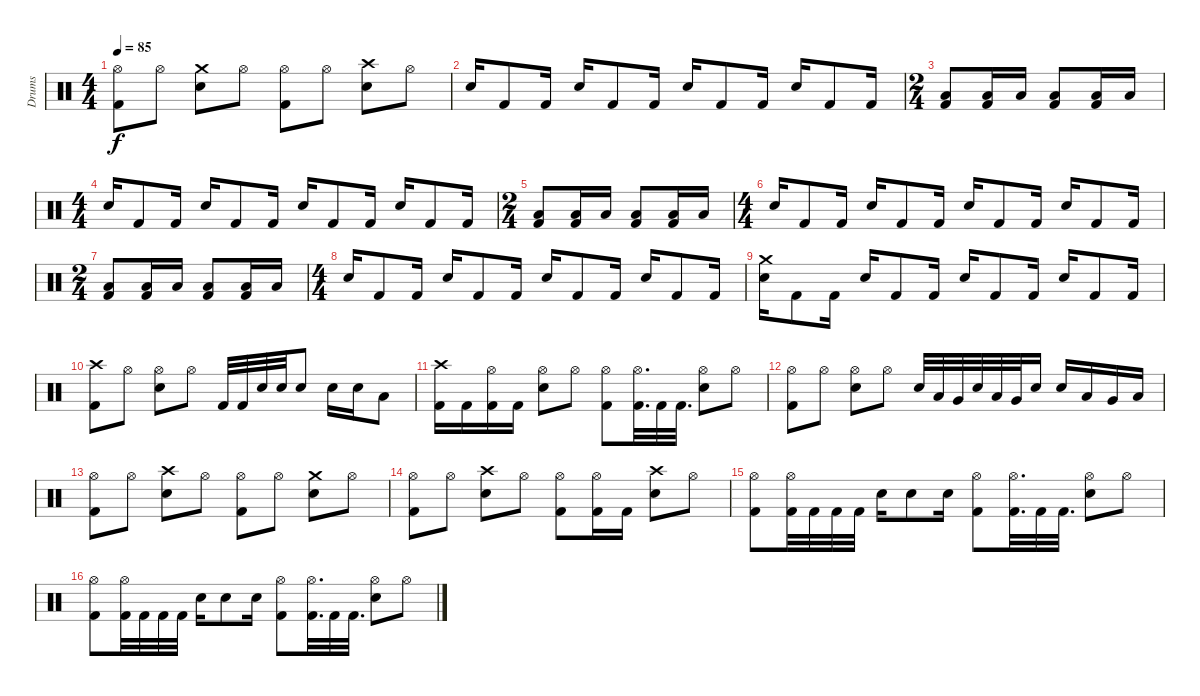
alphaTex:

\track ("Drums" "Drums") {instrument percussion}
\staff {score}
\articulation defaults
\ts (4 4)
\tempo 85
\clef neutral
\ks c
("Hi-Hat (open)" "Kick (hit) 2").8{dy f} "Hi-Hat (open)".8 ("Snare (hit) 2" "Crash medium (hit)").8 "Hi-Hat (open)".8 ("Kick (hit) 2" "Hi-Hat (open)").8 "Hi-Hat (open)".8 ("Crash high (hit)" "Snare (hit) 2").8 "Hi-Hat (open)".8 |
"Snare (hit) 2".16 "Kick (hit) 2".8 "Kick (hit) 2".16 "Snare (hit) 2".16 "Kick (hit) 2".8 "Kick (hit) 2".16 "Snare (hit) 2".16 "Kick (hit) 2".8 "Kick (hit) 2".16 "Snare (hit) 2".16 "Kick (hit) 2".8 "Kick (hit) 2".16 |
\ts (2 4)
("Low Floor Tom (hit)" "Kick (hit) 2").8 ("Kick (hit) 2" "Low Floor Tom (hit)").16 "Low Floor Tom (hit)".16 ("Low Floor Tom (hit)" "Kick (hit) 2").8 ("Kick (hit) 2" "Low Floor Tom (hit)").16 "Low Floor Tom (hit)".16 |
\ts (4 4)
"Snare (hit) 2".16 "Kick (hit) 2".8 "Kick (hit) 2".16 "Snare (hit) 2".16 "Kick (hit) 2".8 "Kick (hit) 2".16 "Snare (hit) 2".16 "Kick (hit) 2".8 "Kick (hit) 2".16 "Snare (hit) 2".16 "Kick (hit) 2".8 "Kick (hit) 2".16 |
\ts (2 4)
("Low Floor Tom (hit)" "Kick (hit) 2").8 ("Kick (hit) 2" "Low Floor Tom (hit)").16 "Low Floor Tom (hit)".16 ("Low Floor Tom (hit)" "Kick (hit) 2").8 ("Kick (hit) 2" "Low Floor Tom (hit)").16 "Low Floor Tom (hit)".16 |
\ts (4 4)
"Snare (hit) 2".16 "Kick (hit) 2".8 "Kick (hit) 2".16 "Snare (hit) 2".16 "Kick (hit) 2".8 "Kick (hit) 2".16 "Snare (hit) 2".16 "Kick (hit) 2".8 "Kick (hit) 2".16 "Snare (hit) 2".16 "Kick (hit) 2".8 "Kick (hit) 2".16 |
\ts (2 4)
("Kick (hit) 2" "Low Floor Tom (hit)").8 ("Kick (hit) 2" "Low Floor Tom (hit)").16 "Low Floor Tom (hit)".16 ("Kick (hit) 2" "Low Floor Tom (hit)").8 ("Kick (hit) 2" "Low Floor Tom (hit)").16 "Low Floor Tom (hit)".16 |
\ts (4 4)
"Snare (hit) 2".16 "Kick (hit) 2".8 "Kick (hit) 2".16 "Snare (hit) 2".16 "Kick (hit) 2".8 "Kick (hit) 2".16 "Snare (hit) 2".16 "Kick (hit) 2".8 "Kick (hit) 2".16 "Snare (hit) 2".16 "Kick (hit) 2".8 "Kick (hit) 2".16 |
("Crash medium (hit)" "Snare (hit) 2").16 "Kick (hit) 2".8 "Kick (hit) 2".16 "Snare (hit) 2".16 "Kick (hit) 2".8 "Kick (hit) 2".16 "Snare (hit) 2".16 "Kick (hit) 2".8 "Kick (hit) 2".16 "Snare (hit) 2".16 "Kick (hit) 2".8 "Kick (hit) 2".16 |
("Crash high (hit)" "Kick (hit) 2").8 "Hi-Hat (open)".8 ("Snare (hit) 2" "Hi-Hat (open)").8 "Hi-Hat (open)".8 "Kick (hit) 2".32 "Kick (hit) 2".32 "Snare (hit) 2".32 "Snare (hit) 2".32 "Snare (hit) 2".8 "Snare (hit) 2".16 "Snare (hit) 2".16 "Low Tom (hit)".8 |
("Crash high (hit)" "Kick (hit) 2").16 "Kick (hit) 2".16 ("Kick (hit) 2" "Hi-Hat (open)").16 "Kick (hit) 2".16 ("Snare (hit) 2" "Hi-Hat (open)").8 "Hi-Hat (open)".8 ("Kick (hit) 2" "Hi-Hat (open)").8 ("Hi-Hat (open)" "Kick (hit) 2").32{d} "Kick (hit) 2".32 "Kick (hit) 2".32{d} ("Snare (hit) 2" "Hi-Hat (open)").8 "Hi-Hat (open)".8 |
("Hi-Hat (open)" "Kick (hit) 2").8 "Hi-Hat (open)".8 ("Snare (hit) 2" "Hi-Hat (open)").8 "Hi-Hat (open)".8 "Snare (hit) 2".32 "Low Tom (hit)".32 "Very Low Tom (hit)".32 "Snare (hit) 2".32 "Low Tom (hit)".32 "Very Low Tom (hit)".32 "Snare (hit) 2".16 "Snare (hit) 2".16 "Low Tom (hit)".16 "Very Low Tom (hit)".16 "Low Floor Tom (hit)".16 |
("Kick (hit) 2" "Hi-Hat (open)").8 "Hi-Hat (open)".8 ("Crash high (hit)" "Snare (hit) 2").8 "Hi-Hat (open)".8 ("Kick (hit) 2" "Hi-Hat (open)").8 "Hi-Hat (open)".8 ("Crash medium (hit)" "Snare (hit) 2").8 "Hi-Hat (open)".8 |
("Kick (hit) 2" "Hi-Hat (open)").8 "Hi-Hat (open)".8 ("Snare (hit) 2" "Crash high (hit)").8 "Hi-Hat (open)".8 ("Kick (hit) 2" "Hi-Hat (open)").8 ("Kick (hit) 2" "Hi-Hat (open)").16 "Kick (hit) 2".16 ("Crash high (hit)" "Snare (hit) 2").8 "Hi-Hat (open)".8 |
("Kick (hit) 2" "Hi-Hat (open)").8 ("Hi-Hat (open)" "Kick (hit) 2").32 "Kick (hit) 2".32 "Kick (hit) 2".32 "Kick (hit) 2".32 "Snare (hit) 2".16 "Snare (hit) 2".8 "Snare (hit) 2".16 ("Hi-Hat (open)" "Kick (hit) 2").8 ("Kick (hit) 2" "Hi-Hat (open)").32{d} "Kick (hit) 2".32 "Kick (hit) 2".32{d} ("Snare (hit) 2" "Hi-Hat (open)").8 "Hi-Hat (open)".8 |
("Kick (hit) 2" "Hi-Hat (open)").8 ("Hi-Hat (open)" "Kick (hit) 2").32 "Kick (hit) 2".32 "Kick (hit) 2".32 "Kick (hit) 2".32 "Snare (hit) 2".16 "Snare (hit) 2".8 "Snare (hit) 2".16 ("Hi-Hat (open)" "Kick (hit) 2").8 ("Kick (hit) 2" "Hi-Hat (open)").32{d} "Kick (hit) 2".32 "Kick (hit) 2".32{d} ("Snare (hit) 2" "Hi-Hat (open)").8 "Hi-Hat (open)".8
